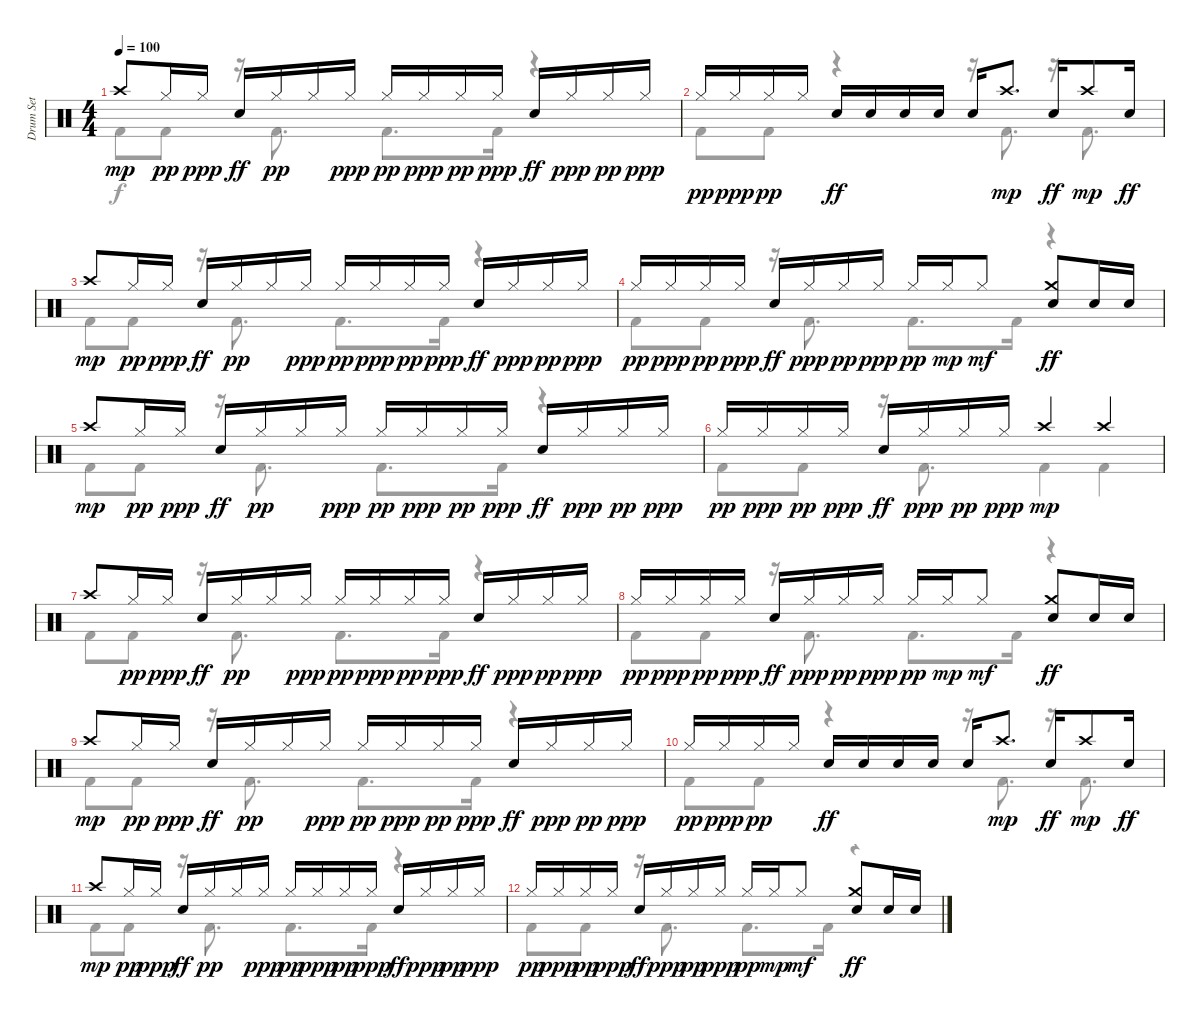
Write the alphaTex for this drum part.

\track ("Drum Set" "Drum Set") {instrument percussion}
\staff {score}
\articulation defaults
\voice
\ts (4 4)
\tempo 100
\clef neutral
\ks c "Crash high (hit)".8{dy mp} "Hi-Hat (closed)".16{dy pp} "Hi-Hat (closed)".16{dy ppp} "Electric Snare (hit)".16{dy ff} "Hi-Hat (closed)".16{dy pp} "Hi-Hat (closed)".16 "Hi-Hat (closed)".16{dy ppp} "Hi-Hat (closed)".16{dy pp} "Hi-Hat (closed)".16{dy ppp} "Hi-Hat (closed)".16{dy pp} "Hi-Hat (closed)".16{dy ppp} "Electric Snare (hit)".16{dy ff} "Hi-Hat (closed)".16{dy ppp} "Hi-Hat (closed)".16{dy pp} "Hi-Hat (closed)".16{dy ppp}
|
"Hi-Hat (closed)".16{dy pp} "Hi-Hat (closed)".16{dy ppp} "Hi-Hat (closed)".16{dy pp} "Hi-Hat (closed)".16 "Electric Snare (hit)".16{dy ff} "Electric Snare (hit)".16 "Electric Snare (hit)".16 "Electric Snare (hit)".16 "Electric Snare (hit)".16 "Crash high (hit)".8{d dy mp} "Electric Snare (hit)".16{dy ff} "Crash high (hit)".8{dy mp} "Electric Snare (hit)".16{dy ff} |
"Crash high (hit)".8{dy mp} "Hi-Hat (closed)".16{dy pp} "Hi-Hat (closed)".16{dy ppp} "Electric Snare (hit)".16{dy ff} "Hi-Hat (closed)".16{dy pp} "Hi-Hat (closed)".16 "Hi-Hat (closed)".16{dy ppp} "Hi-Hat (closed)".16{dy pp} "Hi-Hat (closed)".16{dy ppp} "Hi-Hat (closed)".16{dy pp} "Hi-Hat (closed)".16{dy ppp} "Electric Snare (hit)".16{dy ff} "Hi-Hat (closed)".16{dy ppp} "Hi-Hat (closed)".16{dy pp} "Hi-Hat (closed)".16{dy ppp} |
"Hi-Hat (closed)".16{dy pp} "Hi-Hat (closed)".16{dy ppp} "Hi-Hat (closed)".16{dy pp} "Hi-Hat (closed)".16{dy ppp} "Electric Snare (hit)".16{dy ff} "Hi-Hat (closed)".16{dy ppp} "Hi-Hat (closed)".16{dy pp} "Hi-Hat (closed)".16{dy ppp} "Hi-Hat (closed)".16{dy pp} "Hi-Hat (closed)".16{dy mp} "Hi-Hat (closed)".8{dy mf} ("Crash medium (hit)" "Electric Snare (hit)").8{dy ff} "Electric Snare (hit)".16 "Electric Snare (hit)".16 |
"Crash high (hit)".8{dy mp volume 8} "Hi-Hat (closed)".16{dy pp} "Hi-Hat (closed)".16{dy ppp} "Electric Snare (hit)".16{dy ff} "Hi-Hat (closed)".16{dy pp} "Hi-Hat (closed)".16 "Hi-Hat (closed)".16{dy ppp} "Hi-Hat (closed)".16{dy pp} "Hi-Hat (closed)".16{dy ppp} "Hi-Hat (closed)".16{dy pp} "Hi-Hat (closed)".16{dy ppp} "Electric Snare (hit)".16{dy ff} "Hi-Hat (closed)".16{dy ppp} "Hi-Hat (closed)".16{dy pp} "Hi-Hat (closed)".16{dy ppp} |
"Hi-Hat (closed)".16{dy pp} "Hi-Hat (closed)".16{dy ppp} "Hi-Hat (closed)".16{dy pp} "Hi-Hat (closed)".16{dy ppp} "Electric Snare (hit)".16{dy ff} "Hi-Hat (closed)".16{dy ppp} "Hi-Hat (closed)".16{dy pp} "Hi-Hat (closed)".16{dy ppp} "Crash high (hit)".4{dy mp} "Crash high (hit)".4 |
"Crash high (hit)".8 "Hi-Hat (closed)".16{dy pp} "Hi-Hat (closed)".16{dy ppp} "Electric Snare (hit)".16{dy ff} "Hi-Hat (closed)".16{dy pp} "Hi-Hat (closed)".16 "Hi-Hat (closed)".16{dy ppp} "Hi-Hat (closed)".16{dy pp} "Hi-Hat (closed)".16{dy ppp} "Hi-Hat (closed)".16{dy pp} "Hi-Hat (closed)".16{dy ppp} "Electric Snare (hit)".16{dy ff} "Hi-Hat (closed)".16{dy ppp} "Hi-Hat (closed)".16{dy pp} "Hi-Hat (closed)".16{dy ppp} |
"Hi-Hat (closed)".16{dy pp} "Hi-Hat (closed)".16{dy ppp} "Hi-Hat (closed)".16{dy pp} "Hi-Hat (closed)".16{dy ppp} "Electric Snare (hit)".16{dy ff} "Hi-Hat (closed)".16{dy ppp} "Hi-Hat (closed)".16{dy pp} "Hi-Hat (closed)".16{dy ppp} "Hi-Hat (closed)".16{dy pp} "Hi-Hat (closed)".16{dy mp} "Hi-Hat (closed)".8{dy mf} ("Crash medium (hit)" "Electric Snare (hit)").8{dy ff} "Electric Snare (hit)".16 "Electric Snare (hit)".16 |
"Crash high (hit)".8{dy mp} "Hi-Hat (closed)".16{dy pp volume 0} "Hi-Hat (closed)".16{dy ppp} "Electric Snare (hit)".16{dy ff} "Hi-Hat (closed)".16{dy pp} "Hi-Hat (closed)".16 "Hi-Hat (closed)".16{dy ppp} "Hi-Hat (closed)".16{dy pp} "Hi-Hat (closed)".16{dy ppp} "Hi-Hat (closed)".16{dy pp} "Hi-Hat (closed)".16{dy ppp} "Electric Snare (hit)".16{dy ff} "Hi-Hat (closed)".16{dy ppp} "Hi-Hat (closed)".16{dy pp} "Hi-Hat (closed)".16{dy ppp} |
"Hi-Hat (closed)".16{dy pp} "Hi-Hat (closed)".16{dy ppp} "Hi-Hat (closed)".16{dy pp} "Hi-Hat (closed)".16 "Electric Snare (hit)".16{dy ff} "Electric Snare (hit)".16 "Electric Snare (hit)".16 "Electric Snare (hit)".16 "Electric Snare (hit)".16 "Crash high (hit)".8{d dy mp} "Electric Snare (hit)".16{dy ff} "Crash high (hit)".8{dy mp} "Electric Snare (hit)".16{dy ff} |
"Crash high (hit)".8{dy mp} "Hi-Hat (closed)".16{dy pp} "Hi-Hat (closed)".16{dy ppp} "Electric Snare (hit)".16{dy ff} "Hi-Hat (closed)".16{dy pp} "Hi-Hat (closed)".16 "Hi-Hat (closed)".16{dy ppp} "Hi-Hat (closed)".16{dy pp} "Hi-Hat (closed)".16{dy ppp} "Hi-Hat (closed)".16{dy pp} "Hi-Hat (closed)".16{dy ppp} "Electric Snare (hit)".16{dy ff} "Hi-Hat (closed)".16{dy ppp} "Hi-Hat (closed)".16{dy pp} "Hi-Hat (closed)".16{dy ppp} |
"Hi-Hat (closed)".16{dy pp} "Hi-Hat (closed)".16{dy ppp} "Hi-Hat (closed)".16{dy pp} "Hi-Hat (closed)".16{dy ppp} "Electric Snare (hit)".16{dy ff} "Hi-Hat (closed)".16{dy ppp} "Hi-Hat (closed)".16{dy pp} "Hi-Hat (closed)".16{dy ppp} "Hi-Hat (closed)".16{dy pp} "Hi-Hat (closed)".16{dy mp} "Hi-Hat (closed)".8{dy mf} ("Crash medium (hit)" "Electric Snare (hit)").8{dy ff} "Electric Snare (hit)".16 "Electric Snare (hit)".16
\voice
\clef neutral
\ottava regular
\simile none
\ks c "Kick (hit) 2".8{dy f} "Kick (hit) 2".8
r.16 "Kick (hit) 2".8{d} "Kick (hit) 2".8{d} "Kick (hit) 2".16 r.4 |
"Kick (hit) 2".8 "Kick (hit) 2".8 r.4 r.16 "Kick (hit) 2".8{d} r.16 "Kick (hit) 2".8{d} |
"Kick (hit) 2".8 "Kick (hit) 2".8 r.16 "Kick (hit) 2".8{d} "Kick (hit) 2".8{d} "Kick (hit) 2".16 r.4 |
"Kick (hit) 2".8 "Kick (hit) 2".8 r.16 "Kick (hit) 2".8{d} "Kick (hit) 2".8{d} "Kick (hit) 2".16 r.4 |
"Kick (hit) 2".8 "Kick (hit) 2".8 r.16 "Kick (hit) 2".8{d} "Kick (hit) 2".8{d} "Kick (hit) 2".16 r.4 |
"Kick (hit) 2".8 "Kick (hit) 2".8 r.16 "Kick (hit) 2".8{d} "Kick (hit) 2".4 "Kick (hit) 2".4 |
"Kick (hit) 2".8 "Kick (hit) 2".8 r.16 "Kick (hit) 2".8{d} "Kick (hit) 2".8{d} "Kick (hit) 2".16 r.4 |
"Kick (hit) 2".8 "Kick (hit) 2".8 r.16 "Kick (hit) 2".8{d} "Kick (hit) 2".8{d} "Kick (hit) 2".16 r.4 |
"Kick (hit) 2".8 "Kick (hit) 2".8 r.16 "Kick (hit) 2".8{d} "Kick (hit) 2".8{d} "Kick (hit) 2".16 r.4 |
"Kick (hit) 2".8 "Kick (hit) 2".8 r.4 r.16 "Kick (hit) 2".8{d} r.16 "Kick (hit) 2".8{d} |
"Kick (hit) 2".8 "Kick (hit) 2".8 r.16 "Kick (hit) 2".8{d} "Kick (hit) 2".8{d} "Kick (hit) 2".16 r.4 |
"Kick (hit) 2".8 "Kick (hit) 2".8 r.16 "Kick (hit) 2".8{d} "Kick (hit) 2".8{d} "Kick (hit) 2".16 r.4
